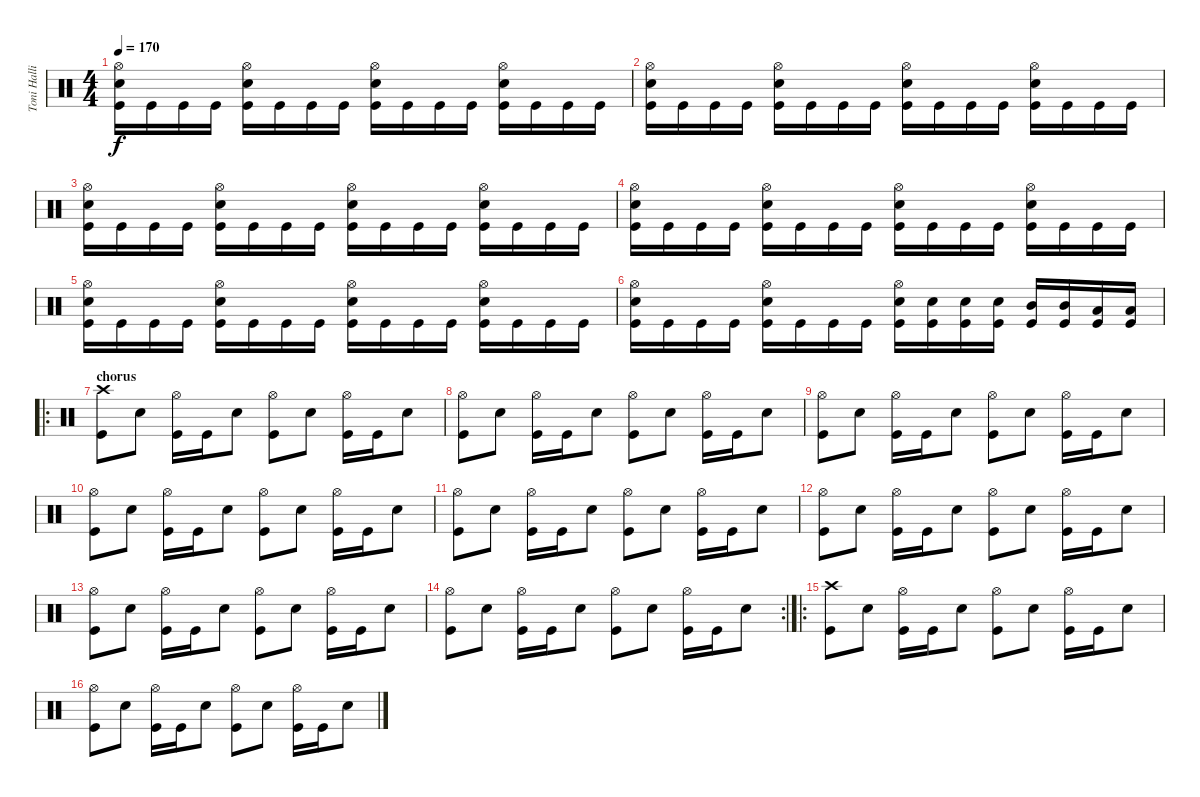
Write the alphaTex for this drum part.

\track ("Toni Hallio" "Toni Halli") {instrument percussion}
\staff {score}
\articulation defaults
\ts (4 4)
\tempo 170
\clef neutral
\ks c
("Hi-Hat (open)" "Snare (hit) 2" "Kick (hit)").16{dy f} "Kick (hit)".16 "Kick (hit)".16 "Kick (hit)".16 ("Hi-Hat (open)" "Snare (hit) 2" "Kick (hit)").16 "Kick (hit)".16 "Kick (hit)".16 "Kick (hit)".16 ("Hi-Hat (open)" "Snare (hit) 2" "Kick (hit)").16 "Kick (hit)".16 "Kick (hit)".16 "Kick (hit)".16 ("Hi-Hat (open)" "Snare (hit) 2" "Kick (hit)").16 "Kick (hit)".16 "Kick (hit)".16 "Kick (hit)".16 |
("Hi-Hat (open)" "Snare (hit) 2" "Kick (hit)").16 "Kick (hit)".16 "Kick (hit)".16 "Kick (hit)".16 ("Hi-Hat (open)" "Snare (hit) 2" "Kick (hit)").16 "Kick (hit)".16 "Kick (hit)".16 "Kick (hit)".16 ("Hi-Hat (open)" "Snare (hit) 2" "Kick (hit)").16 "Kick (hit)".16 "Kick (hit)".16 "Kick (hit)".16 ("Hi-Hat (open)" "Snare (hit) 2" "Kick (hit)").16 "Kick (hit)".16 "Kick (hit)".16 "Kick (hit)".16 |
("Hi-Hat (open)" "Snare (hit) 2" "Kick (hit)").16 "Kick (hit)".16 "Kick (hit)".16 "Kick (hit)".16 ("Hi-Hat (open)" "Snare (hit) 2" "Kick (hit)").16 "Kick (hit)".16 "Kick (hit)".16 "Kick (hit)".16 ("Hi-Hat (open)" "Snare (hit) 2" "Kick (hit)").16 "Kick (hit)".16 "Kick (hit)".16 "Kick (hit)".16 ("Hi-Hat (open)" "Snare (hit) 2" "Kick (hit)").16 "Kick (hit)".16 "Kick (hit)".16 "Kick (hit)".16 |
("Hi-Hat (open)" "Snare (hit) 2" "Kick (hit)").16 "Kick (hit)".16 "Kick (hit)".16 "Kick (hit)".16 ("Hi-Hat (open)" "Snare (hit) 2" "Kick (hit)").16 "Kick (hit)".16 "Kick (hit)".16 "Kick (hit)".16 ("Hi-Hat (open)" "Snare (hit) 2" "Kick (hit)").16 "Kick (hit)".16 "Kick (hit)".16 "Kick (hit)".16 ("Hi-Hat (open)" "Snare (hit) 2" "Kick (hit)").16 "Kick (hit)".16 "Kick (hit)".16 "Kick (hit)".16 |
("Hi-Hat (open)" "Snare (hit) 2" "Kick (hit)").16 "Kick (hit)".16 "Kick (hit)".16 "Kick (hit)".16 ("Hi-Hat (open)" "Snare (hit) 2" "Kick (hit)").16 "Kick (hit)".16 "Kick (hit)".16 "Kick (hit)".16 ("Hi-Hat (open)" "Snare (hit) 2" "Kick (hit)").16 "Kick (hit)".16 "Kick (hit)".16 "Kick (hit)".16 ("Hi-Hat (open)" "Snare (hit) 2" "Kick (hit)").16 "Kick (hit)".16 "Kick (hit)".16 "Kick (hit)".16 |
("Hi-Hat (open)" "Snare (hit) 2" "Kick (hit)").16 "Kick (hit)".16 "Kick (hit)".16 "Kick (hit)".16 ("Hi-Hat (open)" "Snare (hit) 2" "Kick (hit)").16 "Kick (hit)".16 "Kick (hit)".16 "Kick (hit)".16 ("Hi-Hat (open)" "Snare (hit) 2" "Kick (hit)").16 ("Snare (hit) 2" "Kick (hit)").16 ("Snare (hit) 2" "Kick (hit)").16 ("Snare (hit) 2" "Kick (hit)").16 ("Mid Tom (hit)" "Kick (hit)").16 ("Mid Tom (hit)" "Kick (hit)").16 ("Low Tom (hit)" "Kick (hit)").16 ("Low Tom (hit)" "Kick (hit)").16 |
\ro
\section ("" "chorus")
("Crash high (hit)" "Kick (hit)").8 "Snare (hit) 2".8 ("Hi-Hat (open)" "Kick (hit)").16 "Kick (hit)".16 "Snare (hit) 2".8 ("Hi-Hat (open)" "Kick (hit)").8 "Snare (hit) 2".8 ("Hi-Hat (open)" "Kick (hit)").16 "Kick (hit)".16 "Snare (hit) 2".8 |
("Hi-Hat (open)" "Kick (hit)").8 "Snare (hit) 2".8 ("Hi-Hat (open)" "Kick (hit)").16 "Kick (hit)".16 "Snare (hit) 2".8 ("Hi-Hat (open)" "Kick (hit)").8 "Snare (hit) 2".8 ("Hi-Hat (open)" "Kick (hit)").16 "Kick (hit)".16 "Snare (hit) 2".8 |
("Hi-Hat (open)" "Kick (hit)").8 "Snare (hit) 2".8 ("Hi-Hat (open)" "Kick (hit)").16 "Kick (hit)".16 "Snare (hit) 2".8 ("Hi-Hat (open)" "Kick (hit)").8 "Snare (hit) 2".8 ("Hi-Hat (open)" "Kick (hit)").16 "Kick (hit)".16 "Snare (hit) 2".8 |
("Hi-Hat (open)" "Kick (hit)").8 "Snare (hit) 2".8 ("Hi-Hat (open)" "Kick (hit)").16 "Kick (hit)".16 "Snare (hit) 2".8 ("Hi-Hat (open)" "Kick (hit)").8 "Snare (hit) 2".8 ("Hi-Hat (open)" "Kick (hit)").16 "Kick (hit)".16 "Snare (hit) 2".8 |
("Hi-Hat (open)" "Kick (hit)").8 "Snare (hit) 2".8 ("Hi-Hat (open)" "Kick (hit)").16 "Kick (hit)".16 "Snare (hit) 2".8 ("Hi-Hat (open)" "Kick (hit)").8 "Snare (hit) 2".8 ("Hi-Hat (open)" "Kick (hit)").16 "Kick (hit)".16 "Snare (hit) 2".8 |
("Hi-Hat (open)" "Kick (hit)").8 "Snare (hit) 2".8 ("Hi-Hat (open)" "Kick (hit)").16 "Kick (hit)".16 "Snare (hit) 2".8 ("Hi-Hat (open)" "Kick (hit)").8 "Snare (hit) 2".8 ("Hi-Hat (open)" "Kick (hit)").16 "Kick (hit)".16 "Snare (hit) 2".8 |
("Hi-Hat (open)" "Kick (hit)").8 "Snare (hit) 2".8 ("Hi-Hat (open)" "Kick (hit)").16 "Kick (hit)".16 "Snare (hit) 2".8 ("Hi-Hat (open)" "Kick (hit)").8 "Snare (hit) 2".8 ("Hi-Hat (open)" "Kick (hit)").16 "Kick (hit)".16 "Snare (hit) 2".8 |
\rc 2
("Hi-Hat (open)" "Kick (hit)").8 "Snare (hit) 2".8 ("Hi-Hat (open)" "Kick (hit)").16 "Kick (hit)".16 "Snare (hit) 2".8 ("Hi-Hat (open)" "Kick (hit)").8 "Snare (hit) 2".8 ("Hi-Hat (open)" "Kick (hit)").16 "Kick (hit)".16 "Snare (hit) 2".8 |
\ro
("Crash high (hit)" "Kick (hit)").8 "Snare (hit) 2".8 ("Hi-Hat (open)" "Kick (hit)").16 "Kick (hit)".16 "Snare (hit) 2".8 ("Hi-Hat (open)" "Kick (hit)").8 "Snare (hit) 2".8 ("Hi-Hat (open)" "Kick (hit)").16 "Kick (hit)".16 "Snare (hit) 2".8 |
("Hi-Hat (open)" "Kick (hit)").8 "Snare (hit) 2".8 ("Hi-Hat (open)" "Kick (hit)").16 "Kick (hit)".16 "Snare (hit) 2".8 ("Hi-Hat (open)" "Kick (hit)").8 "Snare (hit) 2".8 ("Hi-Hat (open)" "Kick (hit)").16 "Kick (hit)".16 "Snare (hit) 2".8
